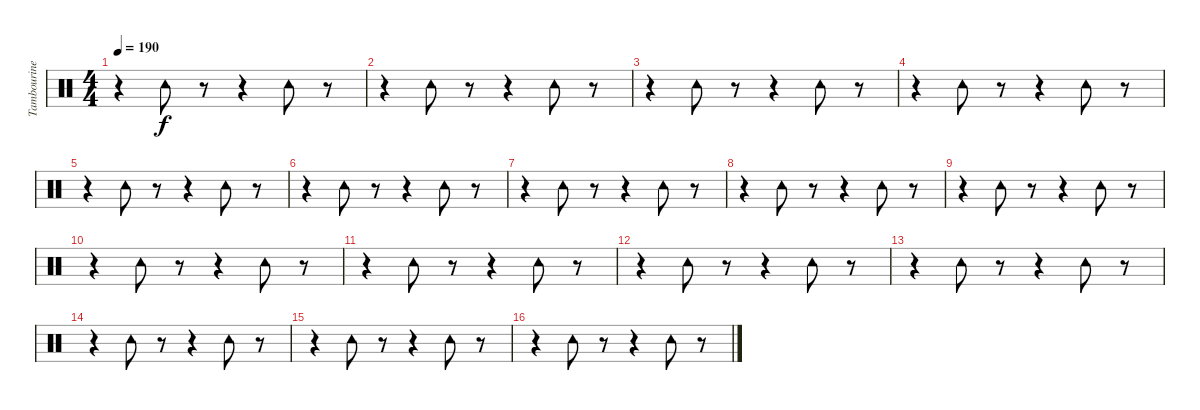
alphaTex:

\track ("Tambourine" "Tambourine") {instrument percussion}
\staff {score}
\articulation defaults
\ts (4 4)
\tempo 190
\clef neutral
\ks c
r.4{dy f} "Tambourine (hit)".8 r.8 r.4 "Tambourine (hit)".8 r.8 |
r.4 "Tambourine (hit)".8 r.8 r.4 "Tambourine (hit)".8 r.8 |
r.4 "Tambourine (hit)".8 r.8 r.4 "Tambourine (hit)".8 r.8 |
r.4 "Tambourine (hit)".8 r.8 r.4 "Tambourine (hit)".8 r.8 |
r.4 "Tambourine (hit)".8 r.8 r.4 "Tambourine (hit)".8 r.8 |
r.4 "Tambourine (hit)".8 r.8 r.4 "Tambourine (hit)".8 r.8 |
r.4 "Tambourine (hit)".8 r.8 r.4 "Tambourine (hit)".8 r.8 |
r.4 "Tambourine (hit)".8 r.8 r.4 "Tambourine (hit)".8 r.8 |
r.4 "Tambourine (hit)".8 r.8 r.4 "Tambourine (hit)".8 r.8 |
r.4 "Tambourine (hit)".8 r.8 r.4 "Tambourine (hit)".8 r.8 |
r.4 "Tambourine (hit)".8 r.8 r.4 "Tambourine (hit)".8 r.8 |
r.4 "Tambourine (hit)".8 r.8 r.4 "Tambourine (hit)".8 r.8 |
r.4 "Tambourine (hit)".8 r.8 r.4 "Tambourine (hit)".8 r.8 |
r.4 "Tambourine (hit)".8 r.8 r.4 "Tambourine (hit)".8 r.8 |
r.4 "Tambourine (hit)".8 r.8 r.4 "Tambourine (hit)".8 r.8 |
r.4 "Tambourine (hit)".8 r.8 r.4 "Tambourine (hit)".8 r.8
